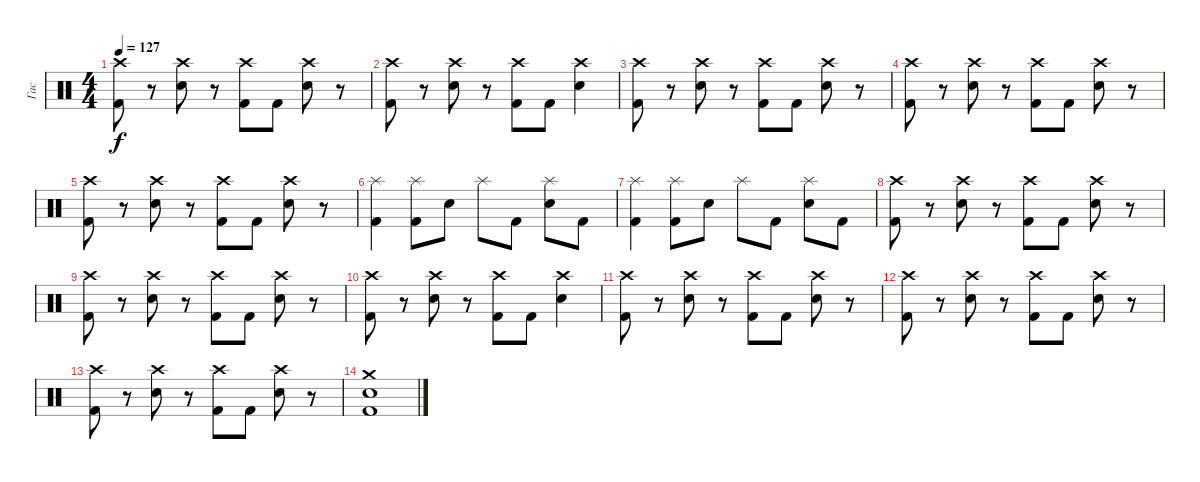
\track ("Гас" "Гас") {instrument percussion}
\staff {score}
\articulation defaults
\ts (4 4)
\tempo 127
\clef neutral
\ks c
("Crash high (hit)" "Kick (hit) 2").8{dy f} r.8 ("Crash high (hit)" "Electric Snare (hit)").8 r.8 ("Crash high (hit)" "Kick (hit) 2").8 "Kick (hit) 2".8 ("Crash high (hit)" "Electric Snare (hit)").8 r.8 |
("Crash high (hit)" "Kick (hit) 2").8 r.8 ("Crash high (hit)" "Electric Snare (hit)").8 r.8 ("Crash high (hit)" "Kick (hit) 2").8 "Kick (hit) 2".8 ("Crash high (hit)" "Electric Snare (hit)").4 |
("Crash high (hit)" "Kick (hit) 2").8 r.8 ("Crash high (hit)" "Electric Snare (hit)").8 r.8 ("Crash high (hit)" "Kick (hit) 2").8 "Kick (hit) 2".8 ("Crash high (hit)" "Electric Snare (hit)").8 r.8 |
("Crash high (hit)" "Kick (hit) 2").8 r.8 ("Crash high (hit)" "Electric Snare (hit)").8 r.8 ("Crash high (hit)" "Kick (hit) 2").8 "Kick (hit) 2".8 ("Crash high (hit)" "Electric Snare (hit)").8 r.8 |
("Crash high (hit)" "Kick (hit) 2").8 r.8 ("Crash high (hit)" "Electric Snare (hit)").8 r.8 ("Crash high (hit)" "Kick (hit) 2").8 "Kick (hit) 2".8 ("Crash high (hit)" "Electric Snare (hit)").8 r.8 |
("Splash (hit)" "Kick (hit) 2").4 ("Splash (hit)" "Kick (hit) 2").8 "Electric Snare (hit)".8 "Splash (hit)".8 "Kick (hit) 2".8 ("Splash (hit)" "Electric Snare (hit)").8 "Kick (hit) 2".8 |
("Splash (hit)" "Kick (hit) 2").4 ("Splash (hit)" "Kick (hit) 2").8 "Electric Snare (hit)".8 "Splash (hit)".8 "Kick (hit) 2".8 ("Splash (hit)" "Electric Snare (hit)").8 "Kick (hit) 2".8 |
("Crash high (hit)" "Kick (hit) 2").8 r.8 ("Crash high (hit)" "Electric Snare (hit)").8 r.8 ("Crash high (hit)" "Kick (hit) 2").8 "Kick (hit) 2".8 ("Crash high (hit)" "Electric Snare (hit)").8 r.8 |
("Crash high (hit)" "Kick (hit) 2").8 r.8 ("Crash high (hit)" "Electric Snare (hit)").8 r.8 ("Crash high (hit)" "Kick (hit) 2").8 "Kick (hit) 2".8 ("Crash high (hit)" "Electric Snare (hit)").8 r.8 |
("Crash high (hit)" "Kick (hit) 2").8 r.8 ("Crash high (hit)" "Electric Snare (hit)").8 r.8 ("Crash high (hit)" "Kick (hit) 2").8 "Kick (hit) 2".8 ("Crash high (hit)" "Electric Snare (hit)").4 |
("Crash high (hit)" "Kick (hit) 2").8 r.8 ("Crash high (hit)" "Electric Snare (hit)").8 r.8 ("Crash high (hit)" "Kick (hit) 2").8 "Kick (hit) 2".8 ("Crash high (hit)" "Electric Snare (hit)").8 r.8 |
("Crash high (hit)" "Kick (hit) 2").8 r.8 ("Crash high (hit)" "Electric Snare (hit)").8 r.8 ("Crash high (hit)" "Kick (hit) 2").8 "Kick (hit) 2".8 ("Crash high (hit)" "Electric Snare (hit)").8 r.8 |
("Crash high (hit)" "Kick (hit) 2").8 r.8 ("Crash high (hit)" "Electric Snare (hit)").8 r.8 ("Crash high (hit)" "Kick (hit) 2").8 "Kick (hit) 2".8 ("Crash high (hit)" "Electric Snare (hit)").8 r.8 |
("Crash medium (hit)" "Electric Snare (hit)" "Kick (hit) 2").1
